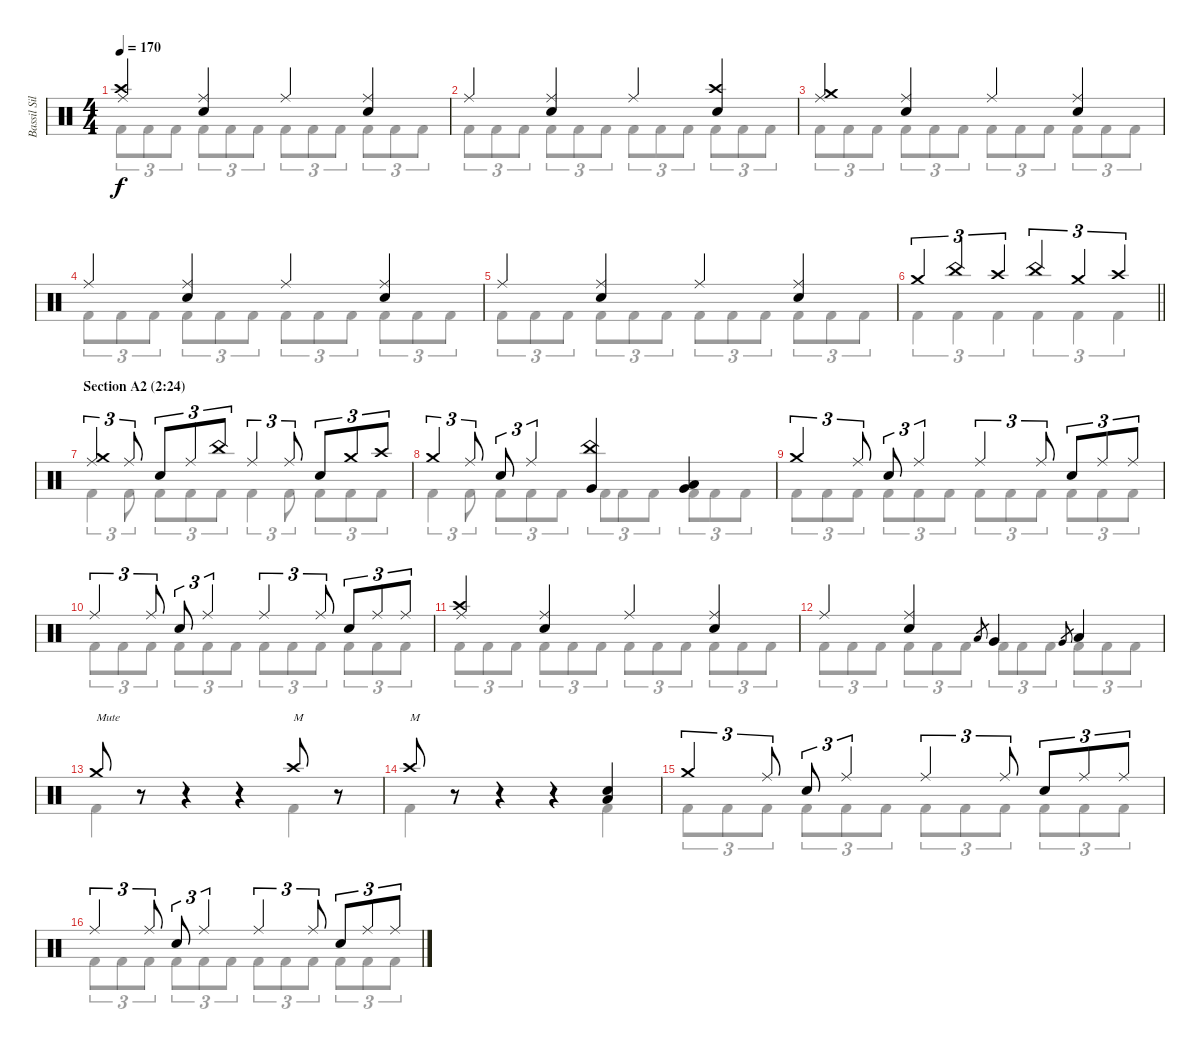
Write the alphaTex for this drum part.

\track ("Bassil Silver-Hajo" "Bassil Sil") {instrument percussion}
\staff {score}
\articulation defaults
\voice
\ts (4 4)
\tempo 170
\clef neutral
\ks c
("Crash high (hit)" "Ride (middle)").4{dy f} ("Ride (middle)" "Snare (hit) 2").4 "Ride (middle)".4 ("Ride (middle)" "Snare (hit) 2").4 |
"Ride (middle)".4 ("Ride (middle)" "Snare (hit) 2").4 "Ride (middle)".4 ("Crash high (hit)" "Snare (hit) 2").4 |
("Crash medium (hit)" "Ride (middle)").4 ("Ride (middle)" "Snare (hit) 2").4 "Ride (middle)".4 ("Ride (middle)" "Snare (hit) 2").4 |
"Ride (middle)".4 ("Ride (middle)" "Snare (hit) 2").4 "Ride (middle)".4 ("Ride (middle)" "Snare (hit) 2").4 |
"Ride (middle)".4 ("Ride (middle)" "Snare (hit) 2").4 "Ride (middle)".4 ("Ride (middle)" "Snare (hit) 2").4 |
\barLineRight lightlight "Crash medium (hit)".4{tu (3 2)} "China (hit)".4{tu (3 2)} "Crash high (hit)".4{tu (3 2)} "China (hit)".4{tu (3 2)} "Crash medium (hit)".4{tu (3 2)} "Crash high (hit)".4{tu (3 2)}
|
\section ("" "Section A2 (2:24)")
("Crash medium (hit)" "Ride (middle)").4{tu (3 2)} "Ride (middle)".8{tu (3 2)} "Snare (hit) 2".8{tu (3 2)} "Ride (middle)".8{tu (3 2)} "China (hit)".8{tu (3 2)} "Ride (middle)".4{tu (3 2)} "Ride (middle)".8{tu (3 2)} "Snare (hit) 2".8{tu (3 2)} "Crash medium (hit)".8{tu (3 2)} "Crash high (hit)".8{tu (3 2)} |
"Crash medium (hit)".4{tu (3 2)} "Ride (middle)".8{tu (3 2)} "Snare (hit) 2".8{tu (3 2)} "Ride (middle)".4{tu (3 2)} ("China (hit)" "Very Low Tom (hit)").4 ("Very Low Tom (hit)" "Low Floor Tom (hit)").4 |
"Crash medium (hit)".4{tu (3 2)} "Ride (middle)".8{tu (3 2)} "Snare (hit) 2".8{tu (3 2)} "Ride (middle)".4{tu (3 2)} "Ride (middle)".4{tu (3 2)} "Ride (middle)".8{tu (3 2)} "Snare (hit) 2".8{tu (3 2)} "Ride (middle)".8{tu (3 2)} "Ride (middle)".8{tu (3 2)} |
"Ride (middle)".4{tu (3 2)} "Ride (middle)".8{tu (3 2)} "Snare (hit) 2".8{tu (3 2)} "Ride (middle)".4{tu (3 2)} "Ride (middle)".4{tu (3 2)} "Ride (middle)".8{tu (3 2)} "Snare (hit) 2".8{tu (3 2)} "Ride (middle)".8{tu (3 2)} "Ride (middle)".8{tu (3 2)} |
("Crash high (hit)" "Ride (middle)").4 ("Ride (middle)" "Snare (hit) 2").4 "Ride (middle)".4 ("Ride (middle)" "Snare (hit) 2").4 |
"Ride (middle)".4 ("Ride (middle)" "Snare (hit) 2").4 "Low Tom (hit)".8{gr} "Very Low Tom (hit)".4 "Very Low Tom (hit)".8{gr} "Low Floor Tom (hit)".4 |
"Crash medium (hit)".8{txt "Mute"} r.8{volume 0} r.4 r.4 "Crash high (hit)".8{txt "M" volume 13} r.8{volume 0} |
"Crash high (hit)".8{txt "M" volume 13} r.8{volume 0} r.4 r.4 ("Low Floor Tom (hit)" "Snare (hit) 2").4{volume 13} |
"Crash medium (hit)".4{tu (3 2)} "Ride (middle)".8{tu (3 2)} "Snare (hit) 2".8{tu (3 2)} "Ride (middle)".4{tu (3 2)} "Ride (middle)".4{tu (3 2)} "Ride (middle)".8{tu (3 2)} "Snare (hit) 2".8{tu (3 2)} "Ride (middle)".8{tu (3 2)} "Ride (middle)".8{tu (3 2)} |
"Ride (middle)".4{tu (3 2)} "Ride (middle)".8{tu (3 2)} "Snare (hit) 2".8{tu (3 2)} "Ride (middle)".4{tu (3 2)} "Ride (middle)".4{tu (3 2)} "Ride (middle)".8{tu (3 2)} "Snare (hit) 2".8{tu (3 2)} "Ride (middle)".8{tu (3 2)} "Ride (middle)".8{tu (3 2)}
\voice
\clef neutral
\ottava regular
\simile none
\ks c "Kick (hit) 2".8{tu (3 2) dy f} "Kick (hit) 2".8{tu (3 2)} "Kick (hit) 2".8{tu (3 2)} "Kick (hit) 2".8{tu (3 2)} "Kick (hit) 2".8{tu (3 2)} "Kick (hit) 2".8{tu (3 2)} "Kick (hit) 2".8{tu (3 2)} "Kick (hit) 2".8{tu (3 2)} "Kick (hit) 2".8{tu (3 2)} "Kick (hit) 2".8{tu (3 2)} "Kick (hit) 2".8{tu (3 2)} "Kick (hit) 2".8{tu (3 2)}
|
"Kick (hit) 2".8{tu (3 2)} "Kick (hit) 2".8{tu (3 2)} "Kick (hit) 2".8{tu (3 2)} "Kick (hit) 2".8{tu (3 2)} "Kick (hit) 2".8{tu (3 2)} "Kick (hit) 2".8{tu (3 2)} "Kick (hit) 2".8{tu (3 2)} "Kick (hit) 2".8{tu (3 2)} "Kick (hit) 2".8{tu (3 2)} "Kick (hit) 2".8{tu (3 2)} "Kick (hit) 2".8{tu (3 2)} "Kick (hit) 2".8{tu (3 2)} |
"Kick (hit) 2".8{tu (3 2)} "Kick (hit) 2".8{tu (3 2)} "Kick (hit) 2".8{tu (3 2)} "Kick (hit) 2".8{tu (3 2)} "Kick (hit) 2".8{tu (3 2)} "Kick (hit) 2".8{tu (3 2)} "Kick (hit) 2".8{tu (3 2)} "Kick (hit) 2".8{tu (3 2)} "Kick (hit) 2".8{tu (3 2)} "Kick (hit) 2".8{tu (3 2)} "Kick (hit) 2".8{tu (3 2)} "Kick (hit) 2".8{tu (3 2)} |
"Kick (hit) 2".8{tu (3 2)} "Kick (hit) 2".8{tu (3 2)} "Kick (hit) 2".8{tu (3 2)} "Kick (hit) 2".8{tu (3 2)} "Kick (hit) 2".8{tu (3 2)} "Kick (hit) 2".8{tu (3 2)} "Kick (hit) 2".8{tu (3 2)} "Kick (hit) 2".8{tu (3 2)} "Kick (hit) 2".8{tu (3 2)} "Kick (hit) 2".8{tu (3 2)} "Kick (hit) 2".8{tu (3 2)} "Kick (hit) 2".8{tu (3 2)} |
"Kick (hit) 2".8{tu (3 2)} "Kick (hit) 2".8{tu (3 2)} "Kick (hit) 2".8{tu (3 2)} "Kick (hit) 2".8{tu (3 2)} "Kick (hit) 2".8{tu (3 2)} "Kick (hit) 2".8{tu (3 2)} "Kick (hit) 2".8{tu (3 2)} "Kick (hit) 2".8{tu (3 2)} "Kick (hit) 2".8{tu (3 2)} "Kick (hit) 2".8{tu (3 2)} "Kick (hit) 2".8{tu (3 2)} "Kick (hit) 2".8{tu (3 2)} |
\barLineRight lightlight "Kick (hit) 2".4{tu (3 2)} "Kick (hit) 2".4{tu (3 2)} "Kick (hit) 2".4{tu (3 2)} "Kick (hit) 2".4{tu (3 2)} "Kick (hit) 2".4{tu (3 2)} "Kick (hit) 2".4{tu (3 2)}
|
"Kick (hit) 2".4{tu (3 2)} "Kick (hit) 2".8{tu (3 2)} "Kick (hit) 2".8{tu (3 2)} "Kick (hit) 2".8{tu (3 2)} "Kick (hit) 2".8{tu (3 2)} "Kick (hit) 2".4{tu (3 2)} "Kick (hit) 2".8{tu (3 2)} "Kick (hit) 2".8{tu (3 2)} "Kick (hit) 2".8{tu (3 2)} "Kick (hit) 2".8{tu (3 2)} |
"Kick (hit) 2".4{tu (3 2)} "Kick (hit) 2".8{tu (3 2)} "Kick (hit) 2".8{tu (3 2)} "Kick (hit) 2".8{tu (3 2)} "Kick (hit) 2".8{tu (3 2)} "Kick (hit) 2".8{tu (3 2)} "Kick (hit) 2".8{tu (3 2)} "Kick (hit) 2".8{tu (3 2)} "Kick (hit) 2".8{tu (3 2)} "Kick (hit) 2".8{tu (3 2)} "Kick (hit) 2".8{tu (3 2)} |
"Kick (hit) 2".8{tu (3 2)} "Kick (hit) 2".8{tu (3 2)} "Kick (hit) 2".8{tu (3 2)} "Kick (hit) 2".8{tu (3 2)} "Kick (hit) 2".8{tu (3 2)} "Kick (hit) 2".8{tu (3 2)} "Kick (hit) 2".8{tu (3 2)} "Kick (hit) 2".8{tu (3 2)} "Kick (hit) 2".8{tu (3 2)} "Kick (hit) 2".8{tu (3 2)} "Kick (hit) 2".8{tu (3 2)} "Kick (hit) 2".8{tu (3 2)} |
"Kick (hit) 2".8{tu (3 2)} "Kick (hit) 2".8{tu (3 2)} "Kick (hit) 2".8{tu (3 2)} "Kick (hit) 2".8{tu (3 2)} "Kick (hit) 2".8{tu (3 2)} "Kick (hit) 2".8{tu (3 2)} "Kick (hit) 2".8{tu (3 2)} "Kick (hit) 2".8{tu (3 2)} "Kick (hit) 2".8{tu (3 2)} "Kick (hit) 2".8{tu (3 2)} "Kick (hit) 2".8{tu (3 2)} "Kick (hit) 2".8{tu (3 2)} |
"Kick (hit) 2".8{tu (3 2)} "Kick (hit) 2".8{tu (3 2)} "Kick (hit) 2".8{tu (3 2)} "Kick (hit) 2".8{tu (3 2)} "Kick (hit) 2".8{tu (3 2)} "Kick (hit) 2".8{tu (3 2)} "Kick (hit) 2".8{tu (3 2)} "Kick (hit) 2".8{tu (3 2)} "Kick (hit) 2".8{tu (3 2)} "Kick (hit) 2".8{tu (3 2)} "Kick (hit) 2".8{tu (3 2)} "Kick (hit) 2".8{tu (3 2)} |
"Kick (hit) 2".8{tu (3 2)} "Kick (hit) 2".8{tu (3 2)} "Kick (hit) 2".8{tu (3 2)} "Kick (hit) 2".8{tu (3 2)} "Kick (hit) 2".8{tu (3 2)} "Kick (hit) 2".8{tu (3 2)} "Kick (hit) 2".8{tu (3 2)} "Kick (hit) 2".8{tu (3 2)} "Kick (hit) 2".8{tu (3 2)} "Kick (hit) 2".8{tu (3 2)} "Kick (hit) 2".8{tu (3 2)} "Kick (hit) 2".8{tu (3 2)} |
"Kick (hit) 2".4 r.4 r.4 "Kick (hit) 2".4 |
"Kick (hit) 2".4 r.4 r.4 "Kick (hit) 2".4 |
"Kick (hit) 2".8{tu (3 2)} "Kick (hit) 2".8{tu (3 2)} "Kick (hit) 2".8{tu (3 2)} "Kick (hit) 2".8{tu (3 2)} "Kick (hit) 2".8{tu (3 2)} "Kick (hit) 2".8{tu (3 2)} "Kick (hit) 2".8{tu (3 2)} "Kick (hit) 2".8{tu (3 2)} "Kick (hit) 2".8{tu (3 2)} "Kick (hit) 2".8{tu (3 2)} "Kick (hit) 2".8{tu (3 2)} "Kick (hit) 2".8{tu (3 2)} |
"Kick (hit) 2".8{tu (3 2)} "Kick (hit) 2".8{tu (3 2)} "Kick (hit) 2".8{tu (3 2)} "Kick (hit) 2".8{tu (3 2)} "Kick (hit) 2".8{tu (3 2)} "Kick (hit) 2".8{tu (3 2)} "Kick (hit) 2".8{tu (3 2)} "Kick (hit) 2".8{tu (3 2)} "Kick (hit) 2".8{tu (3 2)} "Kick (hit) 2".8{tu (3 2)} "Kick (hit) 2".8{tu (3 2)} "Kick (hit) 2".8{tu (3 2)}
